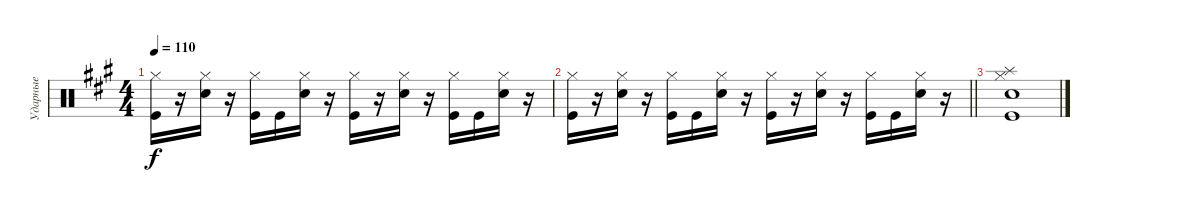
\track ("Ударные" "Ударные") {instrument percussion}
\staff {score}
\articulation defaults
\ts (4 4)
\tempo 110
\clef neutral
\ks f#minor
("Hi-Hat (closed)" "Kick (hit)").16{dy f} r.16 ("Hi-Hat (closed)" "Electric Snare (hit)").16 r.16 ("Hi-Hat (closed)" "Kick (hit)").16 "Kick (hit)".16 ("Hi-Hat (closed)" "Electric Snare (hit)").16 r.16 ("Hi-Hat (closed)" "Kick (hit)").16 r.16 ("Hi-Hat (closed)" "Electric Snare (hit)").16 r.16 ("Hi-Hat (closed)" "Kick (hit)").16 "Kick (hit)".16 ("Hi-Hat (closed)" "Electric Snare (hit)").16 r.16 |
\barLineRight lightlight
("Hi-Hat (closed)" "Kick (hit)").16 r.16 ("Hi-Hat (closed)" "Electric Snare (hit)").16 r.16 ("Hi-Hat (closed)" "Kick (hit)").16 "Kick (hit)".16 ("Hi-Hat (closed)" "Electric Snare (hit)").16 r.16 ("Hi-Hat (closed)" "Kick (hit)").16 r.16 ("Hi-Hat (closed)" "Electric Snare (hit)").16 r.16 ("Hi-Hat (closed)" "Kick (hit)").16 "Kick (hit)".16 ("Hi-Hat (closed)" "Electric Snare (hit)").16 r.16 |
("Hi-Hat (closed)" "Splash (hit)" "Electric Snare (hit)" "Kick (hit)").1
